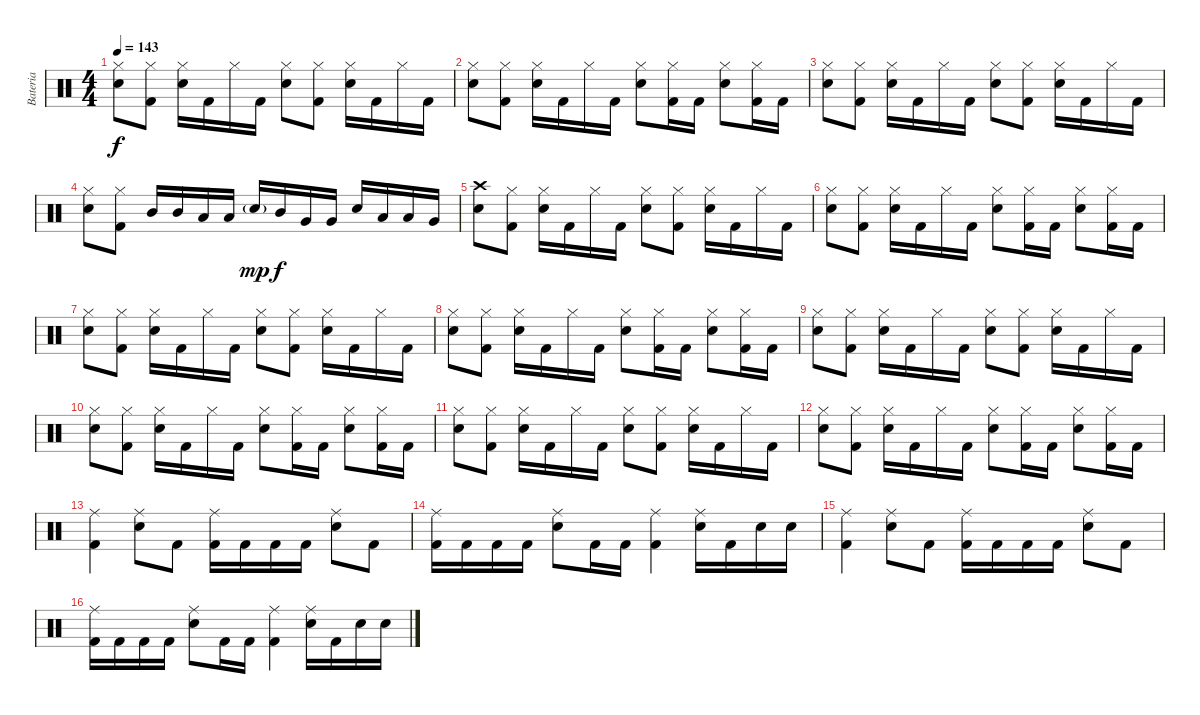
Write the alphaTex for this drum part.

\track ("Bateria" "Bateria") {instrument percussion}
\staff {score}
\articulation defaults
\ts (4 4)
\tempo 143
\clef neutral
\ks c
("Hi-Hat (closed)" "Snare (hit) 2").8{dy f} ("Hi-Hat (closed)" "Kick (hit) 2").8 ("Hi-Hat (closed)" "Snare (hit) 2").16 "Kick (hit) 2".16 "Hi-Hat (closed)".16 "Kick (hit) 2".16 ("Hi-Hat (closed)" "Snare (hit) 2").8 ("Hi-Hat (closed)" "Kick (hit) 2").8 ("Hi-Hat (closed)" "Snare (hit) 2").16 "Kick (hit) 2".16 "Hi-Hat (closed)".16 "Kick (hit) 2".16 |
("Hi-Hat (closed)" "Snare (hit) 2").8 ("Hi-Hat (closed)" "Kick (hit) 2").8 ("Hi-Hat (closed)" "Snare (hit) 2").16 "Kick (hit) 2".16 "Hi-Hat (closed)".16 "Kick (hit) 2".16 ("Hi-Hat (closed)" "Snare (hit) 2").8 ("Hi-Hat (closed)" "Kick (hit) 2").16 "Kick (hit) 2".16 ("Hi-Hat (closed)" "Snare (hit) 2").8 ("Hi-Hat (closed)" "Kick (hit) 2").16 "Kick (hit) 2".16 |
("Hi-Hat (closed)" "Snare (hit) 2").8 ("Hi-Hat (closed)" "Kick (hit) 2").8 ("Hi-Hat (closed)" "Snare (hit) 2").16 "Kick (hit) 2".16 "Hi-Hat (closed)".16 "Kick (hit) 2".16 ("Hi-Hat (closed)" "Snare (hit) 2").8 ("Hi-Hat (closed)" "Kick (hit) 2").8 ("Hi-Hat (closed)" "Snare (hit) 2").16 "Kick (hit) 2".16 "Hi-Hat (closed)".16 "Kick (hit) 2".16 |
("Hi-Hat (closed)" "Snare (hit) 2").8 ("Hi-Hat (closed)" "Kick (hit) 2").8 "Mid Tom (hit)".16 "Mid Tom (hit)".16 "Low Tom (hit)".16 "Low Tom (hit)".16 "Snare (hit) 2"{g}.16{dy mp} "Mid Tom (hit)".16{dy f} "Very Low Tom (hit)".16 "Very Low Tom (hit)".16 "Snare (hit) 2".16 "Low Tom (hit)".16 "Low Tom (hit)".16 "Very Low Tom (hit)".16 |
("Crash high (hit)" "Snare (hit) 2").8 ("Hi-Hat (closed)" "Kick (hit) 2").8 ("Hi-Hat (closed)" "Snare (hit) 2").16 "Kick (hit) 2".16 "Hi-Hat (closed)".16 "Kick (hit) 2".16 ("Hi-Hat (closed)" "Snare (hit) 2").8 ("Hi-Hat (closed)" "Kick (hit) 2").8 ("Hi-Hat (closed)" "Snare (hit) 2").16 "Kick (hit) 2".16 "Hi-Hat (closed)".16 "Kick (hit) 2".16 |
("Hi-Hat (closed)" "Snare (hit) 2").8 ("Hi-Hat (closed)" "Kick (hit) 2").8 ("Hi-Hat (closed)" "Snare (hit) 2").16 "Kick (hit) 2".16 "Hi-Hat (closed)".16 "Kick (hit) 2".16 ("Hi-Hat (closed)" "Snare (hit) 2").8 ("Hi-Hat (closed)" "Kick (hit) 2").16 "Kick (hit) 2".16 ("Hi-Hat (closed)" "Snare (hit) 2").8 ("Hi-Hat (closed)" "Kick (hit) 2").16 "Kick (hit) 2".16 |
("Hi-Hat (closed)" "Snare (hit) 2").8 ("Hi-Hat (closed)" "Kick (hit) 2").8 ("Hi-Hat (closed)" "Snare (hit) 2").16 "Kick (hit) 2".16 "Hi-Hat (closed)".16 "Kick (hit) 2".16 ("Hi-Hat (closed)" "Snare (hit) 2").8 ("Hi-Hat (closed)" "Kick (hit) 2").8 ("Hi-Hat (closed)" "Snare (hit) 2").16 "Kick (hit) 2".16 "Hi-Hat (closed)".16 "Kick (hit) 2".16 |
("Hi-Hat (closed)" "Snare (hit) 2").8 ("Hi-Hat (closed)" "Kick (hit) 2").8 ("Hi-Hat (closed)" "Snare (hit) 2").16 "Kick (hit) 2".16 "Hi-Hat (closed)".16 "Kick (hit) 2".16 ("Hi-Hat (closed)" "Snare (hit) 2").8 ("Hi-Hat (closed)" "Kick (hit) 2").16 "Kick (hit) 2".16 ("Hi-Hat (closed)" "Snare (hit) 2").8 ("Hi-Hat (closed)" "Kick (hit) 2").16 "Kick (hit) 2".16 |
("Hi-Hat (closed)" "Snare (hit) 2").8 ("Hi-Hat (closed)" "Kick (hit) 2").8 ("Hi-Hat (closed)" "Snare (hit) 2").16 "Kick (hit) 2".16 "Hi-Hat (closed)".16 "Kick (hit) 2".16 ("Hi-Hat (closed)" "Snare (hit) 2").8 ("Hi-Hat (closed)" "Kick (hit) 2").8 ("Hi-Hat (closed)" "Snare (hit) 2").16 "Kick (hit) 2".16 "Hi-Hat (closed)".16 "Kick (hit) 2".16 |
("Hi-Hat (closed)" "Snare (hit) 2").8 ("Hi-Hat (closed)" "Kick (hit) 2").8 ("Hi-Hat (closed)" "Snare (hit) 2").16 "Kick (hit) 2".16 "Hi-Hat (closed)".16 "Kick (hit) 2".16 ("Hi-Hat (closed)" "Snare (hit) 2").8 ("Hi-Hat (closed)" "Kick (hit) 2").16 "Kick (hit) 2".16 ("Hi-Hat (closed)" "Snare (hit) 2").8 ("Hi-Hat (closed)" "Kick (hit) 2").16 "Kick (hit) 2".16 |
("Hi-Hat (closed)" "Snare (hit) 2").8 ("Hi-Hat (closed)" "Kick (hit) 2").8 ("Hi-Hat (closed)" "Snare (hit) 2").16 "Kick (hit) 2".16 "Hi-Hat (closed)".16 "Kick (hit) 2".16 ("Hi-Hat (closed)" "Snare (hit) 2").8 ("Hi-Hat (closed)" "Kick (hit) 2").8 ("Hi-Hat (closed)" "Snare (hit) 2").16 "Kick (hit) 2".16 "Hi-Hat (closed)".16 "Kick (hit) 2".16 |
("Hi-Hat (closed)" "Snare (hit) 2").8 ("Hi-Hat (closed)" "Kick (hit) 2").8 ("Hi-Hat (closed)" "Snare (hit) 2").16 "Kick (hit) 2".16 "Hi-Hat (closed)".16 "Kick (hit) 2".16 ("Hi-Hat (closed)" "Snare (hit) 2").8 ("Hi-Hat (closed)" "Kick (hit) 2").16 "Kick (hit) 2".16 ("Hi-Hat (closed)" "Snare (hit) 2").8 ("Hi-Hat (closed)" "Kick (hit) 2").16 "Kick (hit) 2".16 |
("Ride (middle)" "Kick (hit) 2").4 ("Ride (middle)" "Snare (hit) 2").8 "Kick (hit) 2".8 ("Ride (middle)" "Kick (hit) 2").16 "Kick (hit) 2".16 "Kick (hit) 2".16 "Kick (hit) 2".16 ("Ride (middle)" "Snare (hit) 2").8 "Kick (hit) 2".8 |
("Ride (middle)" "Kick (hit) 2").16 "Kick (hit) 2".16 "Kick (hit) 2".16 "Kick (hit) 2".16 ("Ride (middle)" "Snare (hit) 2").8 "Kick (hit) 2".16 "Kick (hit) 2".16 ("Ride (middle)" "Kick (hit) 2").4 ("Ride (middle)" "Snare (hit) 2").16 "Kick (hit) 2".16 "Snare (hit) 2".16 "Snare (hit) 2".16 |
("Ride (middle)" "Kick (hit) 2").4 ("Ride (middle)" "Snare (hit) 2").8 "Kick (hit) 2".8 ("Ride (middle)" "Kick (hit) 2").16 "Kick (hit) 2".16 "Kick (hit) 2".16 "Kick (hit) 2".16 ("Ride (middle)" "Snare (hit) 2").8 "Kick (hit) 2".8 |
("Ride (middle)" "Kick (hit) 2").16 "Kick (hit) 2".16 "Kick (hit) 2".16 "Kick (hit) 2".16 ("Ride (middle)" "Snare (hit) 2").8 "Kick (hit) 2".16 "Kick (hit) 2".16 ("Ride (middle)" "Kick (hit) 2").4 ("Ride (middle)" "Snare (hit) 2").16 "Kick (hit) 2".16 "Snare (hit) 2".16 "Snare (hit) 2".16
